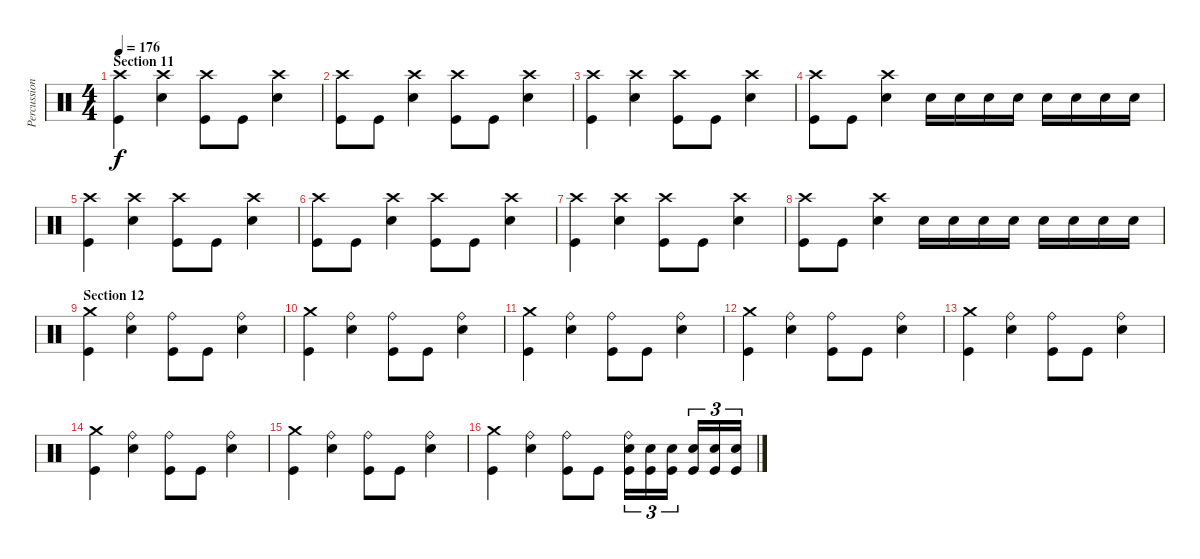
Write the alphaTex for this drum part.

\track ("Percussions" "Percussion") {instrument percussion}
\staff {score}
\articulation defaults
\ts (4 4)
\section ("" "Section 11")
\tempo 176
\clef neutral
\ks c
("Crash high (hit)" "Kick (hit)").4{dy f} ("Crash high (hit)" "Electric Snare (hit)").4 ("Crash high (hit)" "Kick (hit)").8 "Kick (hit)".8 ("Crash high (hit)" "Electric Snare (hit)").4 |
("Crash high (hit)" "Kick (hit)").8 "Kick (hit)".8 ("Crash high (hit)" "Electric Snare (hit)").4 ("Crash high (hit)" "Kick (hit)").8 "Kick (hit)".8 ("Crash high (hit)" "Electric Snare (hit)").4 |
("Crash high (hit)" "Kick (hit)").4 ("Crash high (hit)" "Electric Snare (hit)").4 ("Crash high (hit)" "Kick (hit)").8 "Kick (hit)".8 ("Crash high (hit)" "Electric Snare (hit)").4 |
("Crash high (hit)" "Kick (hit)").8 "Kick (hit)".8 ("Crash high (hit)" "Electric Snare (hit)").4 "Electric Snare (hit)".16 "Electric Snare (hit)".16 "Electric Snare (hit)".16 "Electric Snare (hit)".16 "Electric Snare (hit)".16 "Electric Snare (hit)".16 "Electric Snare (hit)".16 "Electric Snare (hit)".16 |
("Crash high (hit)" "Kick (hit)").4 ("Crash high (hit)" "Electric Snare (hit)").4 ("Crash high (hit)" "Kick (hit)").8 "Kick (hit)".8 ("Crash high (hit)" "Electric Snare (hit)").4 |
("Crash high (hit)" "Kick (hit)").8 "Kick (hit)".8 ("Crash high (hit)" "Electric Snare (hit)").4 ("Crash high (hit)" "Kick (hit)").8 "Kick (hit)".8 ("Crash high (hit)" "Electric Snare (hit)").4 |
("Crash high (hit)" "Kick (hit)").4 ("Crash high (hit)" "Electric Snare (hit)").4 ("Crash high (hit)" "Kick (hit)").8 "Kick (hit)".8 ("Crash high (hit)" "Electric Snare (hit)").4 |
("Crash high (hit)" "Kick (hit)").8 "Kick (hit)".8 ("Crash high (hit)" "Electric Snare (hit)").4 "Electric Snare (hit)".16 "Electric Snare (hit)".16 "Electric Snare (hit)".16 "Electric Snare (hit)".16 "Electric Snare (hit)".16 "Electric Snare (hit)".16 "Electric Snare (hit)".16 "Electric Snare (hit)".16 |
\section ("" "Section 12")
("Crash medium (hit)" "Kick (hit)").4 ("Ride (bell)" "Electric Snare (hit)").4 ("Ride (bell)" "Kick (hit)").8 "Kick (hit)".8 ("Ride (bell)" "Electric Snare (hit)").4 |
("Crash medium (hit)" "Kick (hit)").4 ("Ride (bell)" "Electric Snare (hit)").4 ("Ride (bell)" "Kick (hit)").8 "Kick (hit)".8 ("Ride (bell)" "Electric Snare (hit)").4 |
("Crash medium (hit)" "Kick (hit)").4 ("Ride (bell)" "Electric Snare (hit)").4 ("Ride (bell)" "Kick (hit)").8 "Kick (hit)".8 ("Ride (bell)" "Electric Snare (hit)").4 |
("Crash medium (hit)" "Kick (hit)").4 ("Ride (bell)" "Electric Snare (hit)").4 ("Ride (bell)" "Kick (hit)").8 "Kick (hit)".8 ("Ride (bell)" "Electric Snare (hit)").4 |
("Crash medium (hit)" "Kick (hit)").4 ("Ride (bell)" "Electric Snare (hit)").4 ("Ride (bell)" "Kick (hit)").8 "Kick (hit)".8 ("Ride (bell)" "Electric Snare (hit)").4 |
("Crash medium (hit)" "Kick (hit)").4 ("Ride (bell)" "Electric Snare (hit)").4 ("Ride (bell)" "Kick (hit)").8 "Kick (hit)".8 ("Ride (bell)" "Electric Snare (hit)").4 |
("Crash medium (hit)" "Kick (hit)").4 ("Ride (bell)" "Electric Snare (hit)").4 ("Ride (bell)" "Kick (hit)").8 "Kick (hit)".8 ("Ride (bell)" "Electric Snare (hit)").4 |
("Crash medium (hit)" "Kick (hit)").4 ("Ride (bell)" "Electric Snare (hit)").4 ("Ride (bell)" "Kick (hit)").8 "Kick (hit)".8 ("Ride (bell)" "Electric Snare (hit)" "Kick (hit)").16{tu (3 2)} ("Electric Snare (hit)" "Kick (hit)").16{tu (3 2)} ("Electric Snare (hit)" "Kick (hit)").16{tu (3 2)} ("Electric Snare (hit)" "Kick (hit)").16{tu (3 2)} ("Electric Snare (hit)" "Kick (hit)").16{tu (3 2)} ("Electric Snare (hit)" "Kick (hit)").16{tu (3 2)}
